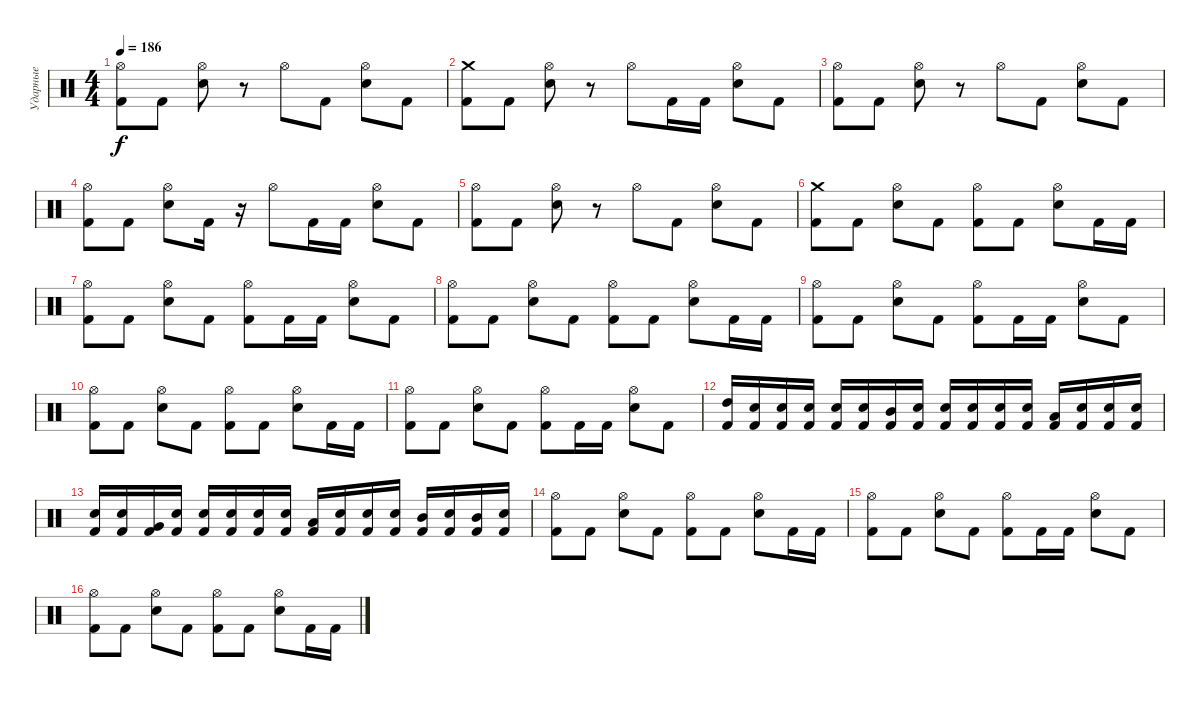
\track ("Ударные" "Ударные") {instrument percussion}
\staff {score}
\articulation defaults
\ts (4 4)
\tempo 186
\clef neutral
\ks c
("Kick (hit) 2" "Hi-Hat (open)").8{dy f} "Kick (hit) 2".8 ("Snare (hit) 2" "Hi-Hat (open)").8 r.8 "Hi-Hat (open)".8 "Kick (hit) 2".8 ("Snare (hit) 2" "Hi-Hat (open)").8 "Kick (hit) 2".8 |
("Kick (hit) 2" "Crash medium (hit)").8 "Kick (hit) 2".8 ("Snare (hit) 2" "Hi-Hat (open)").8 r.8 "Hi-Hat (open)".8 "Kick (hit) 2".16 "Kick (hit) 2".16 ("Snare (hit) 2" "Hi-Hat (open)").8 "Kick (hit) 2".8 |
("Kick (hit) 2" "Hi-Hat (open)").8 "Kick (hit) 2".8 ("Snare (hit) 2" "Hi-Hat (open)").8 r.8 "Hi-Hat (open)".8 "Kick (hit) 2".8 ("Snare (hit) 2" "Hi-Hat (open)").8 "Kick (hit) 2".8 |
("Kick (hit) 2" "Hi-Hat (open)").8 "Kick (hit) 2".8 ("Snare (hit) 2" "Hi-Hat (open)").8 "Kick (hit) 2".16 r.16 "Hi-Hat (open)".8 "Kick (hit) 2".16 "Kick (hit) 2".16 ("Snare (hit) 2" "Hi-Hat (open)").8 "Kick (hit) 2".8 |
("Kick (hit) 2" "Hi-Hat (open)").8 "Kick (hit) 2".8 ("Snare (hit) 2" "Hi-Hat (open)").8 r.8 "Hi-Hat (open)".8 "Kick (hit) 2".8 ("Snare (hit) 2" "Hi-Hat (open)").8 "Kick (hit) 2".8 |
("Kick (hit) 2" "Crash medium (hit)").8 "Kick (hit) 2".8 ("Snare (hit) 2" "Hi-Hat (open)").8 "Kick (hit) 2".8 ("Kick (hit) 2" "Hi-Hat (open)").8 "Kick (hit) 2".8 ("Snare (hit) 2" "Hi-Hat (open)").8 "Kick (hit) 2".16 "Kick (hit) 2".16 |
("Kick (hit) 2" "Hi-Hat (open)").8 "Kick (hit) 2".8 ("Snare (hit) 2" "Hi-Hat (open)").8 "Kick (hit) 2".8 ("Kick (hit) 2" "Hi-Hat (open)").8 "Kick (hit) 2".16 "Kick (hit) 2".16 ("Snare (hit) 2" "Hi-Hat (open)").8 "Kick (hit) 2".8 |
("Kick (hit) 2" "Hi-Hat (open)").8 "Kick (hit) 2".8 ("Snare (hit) 2" "Hi-Hat (open)").8 "Kick (hit) 2".8 ("Kick (hit) 2" "Hi-Hat (open)").8 "Kick (hit) 2".8 ("Snare (hit) 2" "Hi-Hat (open)").8 "Kick (hit) 2".16 "Kick (hit) 2".16 |
("Kick (hit) 2" "Hi-Hat (open)").8 "Kick (hit) 2".8 ("Snare (hit) 2" "Hi-Hat (open)").8 "Kick (hit) 2".8 ("Kick (hit) 2" "Hi-Hat (open)").8 "Kick (hit) 2".16 "Kick (hit) 2".16 ("Snare (hit) 2" "Hi-Hat (open)").8 "Kick (hit) 2".8 |
("Kick (hit) 2" "Hi-Hat (open)").8 "Kick (hit) 2".8 ("Snare (hit) 2" "Hi-Hat (open)").8 "Kick (hit) 2".8 ("Kick (hit) 2" "Hi-Hat (open)").8 "Kick (hit) 2".8 ("Snare (hit) 2" "Hi-Hat (open)").8 "Kick (hit) 2".16 "Kick (hit) 2".16 |
("Kick (hit) 2" "Hi-Hat (open)").8 "Kick (hit) 2".8 ("Snare (hit) 2" "Hi-Hat (open)").8 "Kick (hit) 2".8 ("Kick (hit) 2" "Hi-Hat (open)").8 "Kick (hit) 2".16 "Kick (hit) 2".16 ("Snare (hit) 2" "Hi-Hat (open)").8 "Kick (hit) 2".8 |
("Kick (hit) 2" "High Tom (hit)").16 ("Kick (hit) 2" "Snare (hit) 2").16 ("Kick (hit) 2" "Snare (hit) 2").16 ("Kick (hit) 2" "Snare (hit) 2").16 ("Kick (hit) 2" "Snare (hit) 2").16 ("Kick (hit) 2" "Snare (hit) 2").16 ("Kick (hit) 2" "Mid Tom (hit)").16 ("Kick (hit) 2" "Snare (hit) 2").16 ("Kick (hit) 2" "Snare (hit) 2").16 ("Kick (hit) 2" "Snare (hit) 2").16 ("Kick (hit) 2" "Snare (hit) 2").16 ("Kick (hit) 2" "Snare (hit) 2").16 ("Kick (hit) 2" "Low Tom (hit)").16 ("Kick (hit) 2" "Snare (hit) 2").16 ("Kick (hit) 2" "Snare (hit) 2").16 ("Kick (hit) 2" "Snare (hit) 2").16 |
("Kick (hit) 2" "Snare (hit) 2").16 ("Kick (hit) 2" "Snare (hit) 2").16 ("Kick (hit) 2" "Very Low Tom (hit)").16 ("Kick (hit) 2" "Snare (hit) 2").16 ("Kick (hit) 2" "Snare (hit) 2").16 ("Kick (hit) 2" "Snare (hit) 2").16 ("Kick (hit) 2" "Snare (hit) 2").16 ("Kick (hit) 2" "Snare (hit) 2").16 ("Kick (hit) 2" "Low Tom (hit)").16 ("Kick (hit) 2" "Snare (hit) 2").16 ("Kick (hit) 2" "Snare (hit) 2").16 ("Kick (hit) 2" "Snare (hit) 2").16 ("Kick (hit) 2" "Mid Tom (hit)").16 ("Kick (hit) 2" "Snare (hit) 2").16 ("Kick (hit) 2" "Mid Tom (hit)").16 ("Kick (hit) 2" "Snare (hit) 2").16 |
("Kick (hit) 2" "Hi-Hat (open)").8 "Kick (hit) 2".8 ("Snare (hit) 2" "Hi-Hat (open)").8 "Kick (hit) 2".8 ("Kick (hit) 2" "Hi-Hat (open)").8 "Kick (hit) 2".8 ("Snare (hit) 2" "Hi-Hat (open)").8 "Kick (hit) 2".16 "Kick (hit) 2".16 |
("Kick (hit) 2" "Hi-Hat (open)").8 "Kick (hit) 2".8 ("Snare (hit) 2" "Hi-Hat (open)").8 "Kick (hit) 2".8 ("Kick (hit) 2" "Hi-Hat (open)").8 "Kick (hit) 2".16 "Kick (hit) 2".16 ("Snare (hit) 2" "Hi-Hat (open)").8 "Kick (hit) 2".8 |
("Kick (hit) 2" "Hi-Hat (open)").8 "Kick (hit) 2".8 ("Snare (hit) 2" "Hi-Hat (open)").8 "Kick (hit) 2".8 ("Kick (hit) 2" "Hi-Hat (open)").8 "Kick (hit) 2".8 ("Snare (hit) 2" "Hi-Hat (open)").8 "Kick (hit) 2".16 "Kick (hit) 2".16
